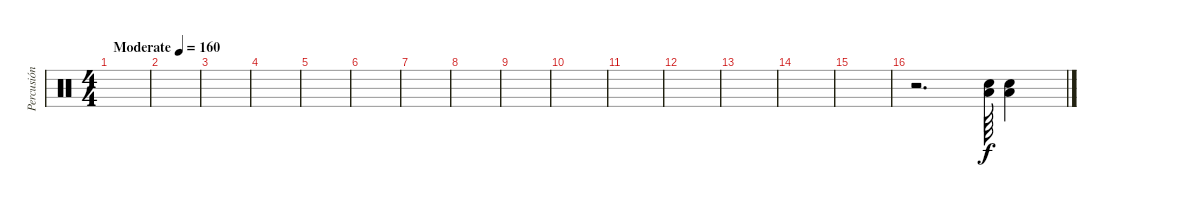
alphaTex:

\track ("Percusión" "Percusión") {instrument percussion}
\staff {score}
\articulation defaults
\ts (4 4)
\tempo (160 "Moderate")
\clef neutral
\ks c
|
|
|
|
|
|
|
|
|
|
|
|
|
|
|
r.2{d} ("Low Floor Tom (hit)" "Electric Snare (hit)").64 ("Electric Snare (hit)" "Low Floor Tom (hit)").4
